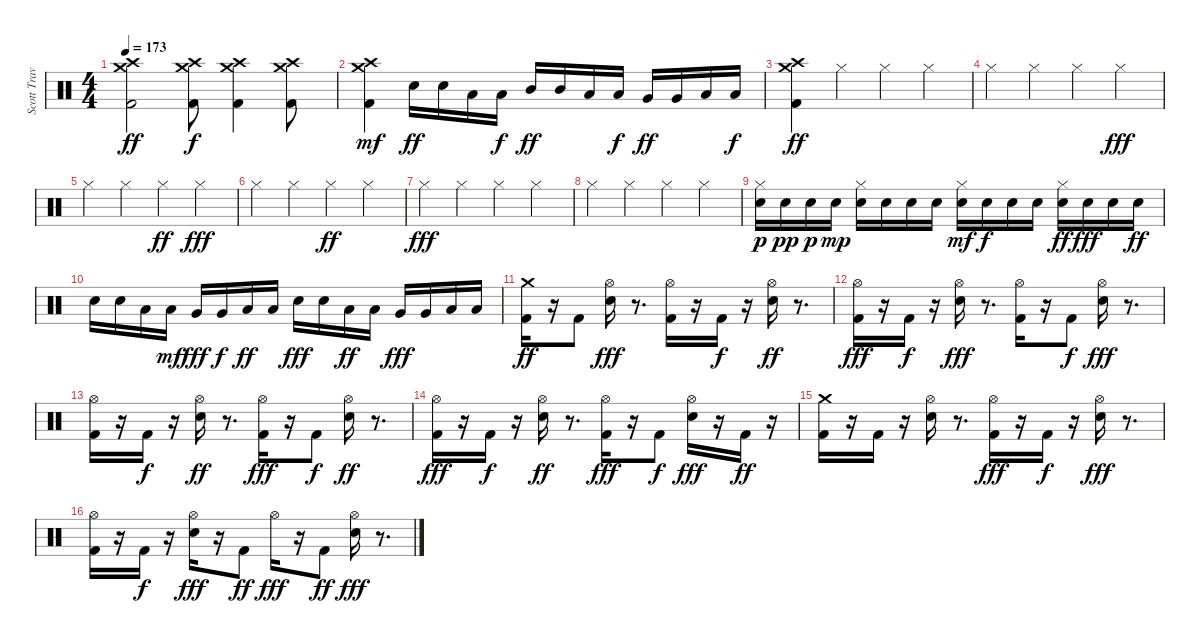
\track ("Scott Travis" "Scott Trav") {instrument percussion}
\staff {score}
\articulation defaults
\ts (4 4)
\tempo 173
\clef neutral
\ks c
("Crash high (hit)" "Kick (hit) 2" "Crash medium (hit)").2{dy ff} ("Kick (hit) 2" "Crash high (hit)" "Crash medium (hit)").8{dy f} ("Crash high (hit)" "Kick (hit) 2" "Crash medium (hit)").4 ("Kick (hit) 2" "Crash high (hit)" "Crash medium (hit)").8 |
("Crash high (hit)" "Kick (hit) 2" "Crash medium (hit)").4{dy mf} "Snare (hit) 2".16{dy ff} "Snare (hit) 2".16 "Low Floor Tom (hit)".16 "Low Floor Tom (hit)".16{dy f} "Mid Tom (hit)".16{dy ff} "Mid Tom (hit)".16 "Low Floor Tom (hit)".16 "Low Floor Tom (hit)".16{dy f} "Very Low Tom (hit)".16{dy ff} "Very Low Tom (hit)".16 "Low Floor Tom (hit)".16 "Low Floor Tom (hit)".16{dy f} |
("Kick (hit) 2" "Crash high (hit)" "Crash medium (hit)").4{dy ff} "Hi-Hat (closed)".4 "Hi-Hat (closed)".4 "Hi-Hat (closed)".4 |
"Hi-Hat (closed)".4 "Hi-Hat (closed)".4 "Hi-Hat (closed)".4 "Hi-Hat (closed)".4{dy fff} |
"Hi-Hat (closed)".4 "Hi-Hat (closed)".4 "Hi-Hat (closed)".4{dy ff} "Hi-Hat (closed)".4{dy fff} |
"Hi-Hat (closed)".4 "Hi-Hat (closed)".4 "Hi-Hat (closed)".4{dy ff} "Hi-Hat (closed)".4 |
"Hi-Hat (closed)".4{dy fff} "Hi-Hat (closed)".4 "Hi-Hat (closed)".4 "Hi-Hat (closed)".4 |
"Hi-Hat (closed)".4 "Hi-Hat (closed)".4 "Hi-Hat (closed)".4 "Hi-Hat (closed)".4 |
("Hi-Hat (closed)" "Snare (hit) 2").16{dy p} "Snare (hit) 2".16{dy pp} "Snare (hit) 2".16{dy p} "Snare (hit) 2".16{dy mp} ("Hi-Hat (closed)" "Snare (hit) 2").16 "Snare (hit) 2".16 "Snare (hit) 2".16 "Snare (hit) 2".16 ("Hi-Hat (closed)" "Snare (hit) 2").16{dy mf} "Snare (hit) 2".16{dy f} "Snare (hit) 2".16 "Snare (hit) 2".16 ("Hi-Hat (closed)" "Snare (hit) 2").16{dy ff} "Snare (hit) 2".16{dy fff} "Snare (hit) 2".16 "Snare (hit) 2".16{dy ff} |
"Snare (hit) 2".16 "Snare (hit) 2".16 "Low Floor Tom (hit)".16 "Low Floor Tom (hit)".16{dy mf} "Very Low Tom (hit)".16{dy fff} "Very Low Tom (hit)".16{dy f} "Low Floor Tom (hit)".16{dy ff} "Low Floor Tom (hit)".16 "Snare (hit) 2".16{dy fff} "Snare (hit) 2".16 "Low Tom (hit)".16{dy ff} "Low Tom (hit)".16 "Very Low Tom (hit)".16{dy fff} "Very Low Tom (hit)".16 "Low Floor Tom (hit)".16 "Low Floor Tom (hit)".16 |
("Kick (hit) 2" "Crash medium (hit)").16{dy ff} r.16 "Kick (hit) 2".8 ("Hi-Hat (open)" "Snare (hit) 2").16{dy fff} r.8{d} ("Kick (hit) 2" "Hi-Hat (open)").16 r.16 "Kick (hit) 2".16{dy f} r.16 ("Hi-Hat (open)" "Snare (hit) 2").16{dy ff} r.8{d} |
("Hi-Hat (open)" "Kick (hit) 2").16{dy fff} r.16 "Kick (hit) 2".16{dy f} r.16 ("Snare (hit) 2" "Hi-Hat (open)").16{dy fff} r.8{d} ("Kick (hit) 2" "Hi-Hat (open)").16 r.16 "Kick (hit) 2".8{dy f} ("Snare (hit) 2" "Hi-Hat (open)").16{dy fff} r.8{d} |
("Kick (hit) 2" "Hi-Hat (open)").16 r.16 "Kick (hit) 2".16{dy f} r.16 ("Hi-Hat (open)" "Snare (hit) 2").16{dy ff} r.8{d} ("Kick (hit) 2" "Hi-Hat (open)").16{dy fff} r.16 "Kick (hit) 2".8{dy f} ("Hi-Hat (open)" "Snare (hit) 2").16{dy ff} r.8{d} |
("Kick (hit) 2" "Hi-Hat (open)").16{dy fff} r.16 "Kick (hit) 2".16{dy f} r.16 ("Hi-Hat (open)" "Snare (hit) 2").16{dy ff} r.8{d} ("Kick (hit) 2" "Hi-Hat (open)").16{dy fff} r.16 "Kick (hit) 2".8{dy f} ("Snare (hit) 2" "Hi-Hat (open)").16{dy fff} r.16 "Kick (hit) 2".16{dy ff} r.16 |
("Crash medium (hit)" "Kick (hit) 2").16 r.16 "Kick (hit) 2".16 r.16 ("Snare (hit) 2" "Hi-Hat (open)").16 r.8{d} ("Kick (hit) 2" "Hi-Hat (open)").16{dy fff} r.16 "Kick (hit) 2".16{dy f} r.16 ("Snare (hit) 2" "Hi-Hat (open)").16{dy fff} r.8{d} |
("Kick (hit) 2" "Hi-Hat (open)").16 r.16 "Kick (hit) 2".16{dy f} r.16 ("Snare (hit) 2" "Hi-Hat (open)").16{dy fff} r.16 "Kick (hit) 2".8{dy ff} "Hi-Hat (open)".16{dy fff} r.16 "Kick (hit) 2".8{dy ff} ("Snare (hit) 2" "Hi-Hat (open)").16{dy fff} r.8{d}
